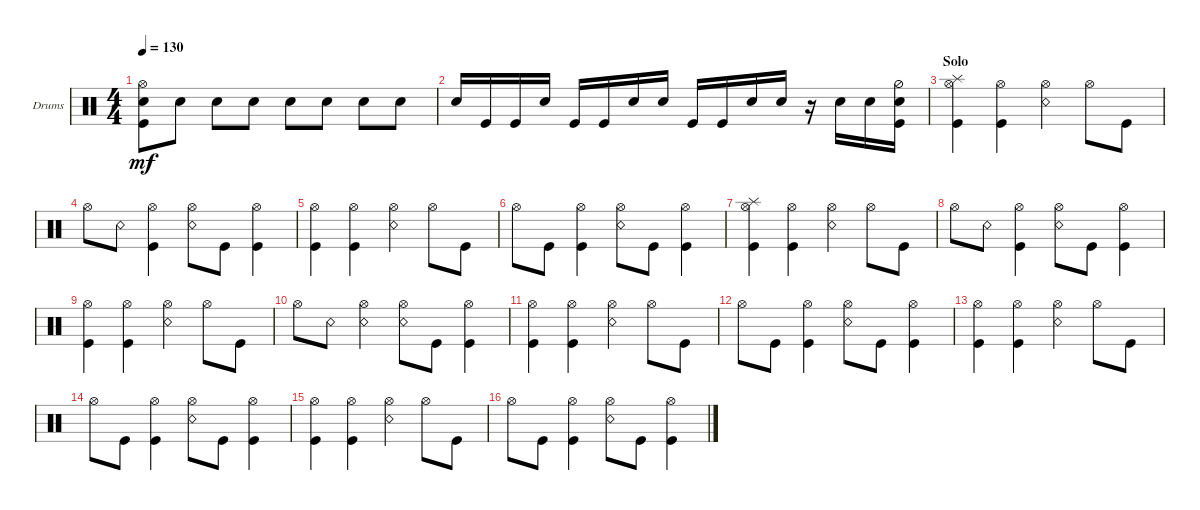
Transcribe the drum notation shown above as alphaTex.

\defaultSystemsLayout 4
\bracketExtendMode groupsimilarinstruments
\firstSystemTrackNameOrientation horizontal
\otherSystemsTrackNameOrientation horizontal
\track ("Drumkit" "Drums") {instrument percussion}
\staff {score}
\articulation defaults
\ts (4 4)
\tempo 130
\clef neutral
\ks c
("Snare (hit) 2" "Kick (hit)" "Hi-Hat (open)").8{dy mf} "Snare (hit) 2".8 "Snare (hit) 2".8 "Snare (hit) 2".8 "Snare (hit) 2".8 "Snare (hit) 2".8 "Snare (hit) 2".8 "Snare (hit) 2".8 |
"Snare (hit) 2".16 "Kick (hit)".16 "Kick (hit)".16 "Snare (hit) 2".16 "Kick (hit)".16 "Kick (hit)".16 "Snare (hit) 2".16 "Snare (hit) 2".16 "Kick (hit)".16 "Kick (hit)".16 "Snare (hit) 2".16 "Snare (hit) 2".16 r.16 "Snare (hit) 2".16 "Snare (hit) 2".16 ("Snare (hit) 2" "Kick (hit)" "Hi-Hat (half)").16 |
\section ("" "Solo")
("Kick (hit)" "Splash (hit)" "Hi-Hat (open)").4 ("Kick (hit)" "Hi-Hat (open)").4 ("Snare (rim shot)" "Hi-Hat (open)").4 "Hi-Hat (open)".8 "Kick (hit)".8 |
"Hi-Hat (open)".8 "Snare (rim shot)".8 ("Kick (hit)" "Hi-Hat (open)").4 ("Snare (rim shot)" "Hi-Hat (open)").8 "Kick (hit)".8 ("Kick (hit)" "Hi-Hat (open)").4 |
("Kick (hit)" "Hi-Hat (open)").4 ("Kick (hit)" "Hi-Hat (open)").4 ("Snare (rim shot)" "Hi-Hat (open)").4 "Hi-Hat (open)".8 "Kick (hit)".8 |
"Hi-Hat (open)".8 "Kick (hit)".8 ("Kick (hit)" "Hi-Hat (open)").4 ("Snare (rim shot)" "Hi-Hat (open)").8 "Kick (hit)".8 ("Kick (hit)" "Hi-Hat (open)").4 |
("Kick (hit)" "Splash (hit)" "Hi-Hat (open)").4 ("Kick (hit)" "Hi-Hat (open)").4 ("Snare (rim shot)" "Hi-Hat (open)").4 "Hi-Hat (open)".8 "Kick (hit)".8 |
"Hi-Hat (open)".8 "Snare (rim shot)".8 ("Kick (hit)" "Hi-Hat (open)").4 ("Snare (rim shot)" "Hi-Hat (open)").8 "Kick (hit)".8 ("Kick (hit)" "Hi-Hat (open)").4 |
("Kick (hit)" "Hi-Hat (open)").4 ("Kick (hit)" "Hi-Hat (open)").4 ("Snare (rim shot)" "Hi-Hat (open)").4 "Hi-Hat (open)".8 "Kick (hit)".8 |
"Hi-Hat (open)".8 "Snare (rim shot)".8 ("Snare (rim shot)" "Hi-Hat (open)").4 ("Snare (rim shot)" "Hi-Hat (open)").8 "Kick (hit)".8 ("Kick (hit)" "Hi-Hat (open)").4 |
("Kick (hit)" "Hi-Hat (open)").4 ("Kick (hit)" "Hi-Hat (open)").4 ("Snare (rim shot)" "Hi-Hat (open)").4 "Hi-Hat (open)".8 "Kick (hit)".8 |
"Hi-Hat (open)".8 "Kick (hit)".8 ("Kick (hit)" "Hi-Hat (open)").4 ("Snare (rim shot)" "Hi-Hat (open)").8 "Kick (hit)".8 ("Kick (hit)" "Hi-Hat (open)").4 |
("Kick (hit)" "Hi-Hat (open)").4 ("Kick (hit)" "Hi-Hat (open)").4 ("Snare (rim shot)" "Hi-Hat (open)").4 "Hi-Hat (open)".8 "Kick (hit)".8 |
"Hi-Hat (open)".8 "Kick (hit)".8 ("Kick (hit)" "Hi-Hat (open)").4 ("Snare (rim shot)" "Hi-Hat (open)").8 "Kick (hit)".8 ("Kick (hit)" "Hi-Hat (open)").4 |
("Kick (hit)" "Hi-Hat (open)").4 ("Kick (hit)" "Hi-Hat (open)").4 ("Snare (rim shot)" "Hi-Hat (open)").4 "Hi-Hat (open)".8 "Kick (hit)".8 |
"Hi-Hat (open)".8 "Kick (hit)".8 ("Kick (hit)" "Hi-Hat (open)").4 ("Snare (rim shot)" "Hi-Hat (open)").8 "Kick (hit)".8 ("Kick (hit)" "Hi-Hat (open)").4
